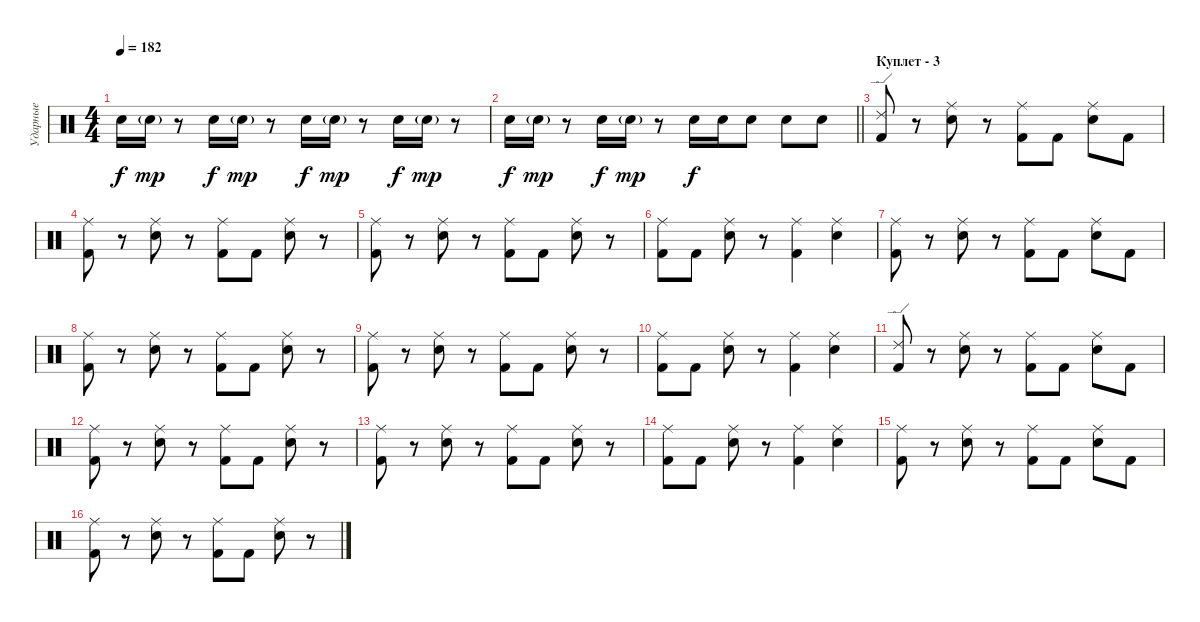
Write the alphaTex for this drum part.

\track ("Ударные" "Ударные") {instrument percussion}
\staff {score}
\articulation defaults
\ts (4 4)
\tempo 182
\clef neutral
\ks c "Snare (hit) 2".16{dy f volume 7} "Snare (hit) 2"{g}.16{dy mp volume 13}
r.8 "Snare (hit) 2".16{dy f} "Snare (hit) 2"{g}.16{dy mp} r.8 "Snare (hit) 2".16{dy f} "Snare (hit) 2"{g}.16{dy mp} r.8 "Snare (hit) 2".16{dy f} "Snare (hit) 2"{g}.16{dy mp} r.8 |
\barLineRight lightlight "Snare (hit) 2".16{dy f} "Snare (hit) 2"{g}.16{dy mp}
r.8 "Snare (hit) 2".16{dy f} "Snare (hit) 2"{g}.16{dy mp} r.8 "Snare (hit) 2".16{dy f} "Snare (hit) 2".16 "Snare (hit) 2".8 "Snare (hit) 2".8 "Snare (hit) 2".8 |
\section ("" "Куплет - 3")
("Ride (edge) 2" "Kick (hit) 2").8 r.8 ("Ride (middle)" "Snare (hit) 2").8 r.8 ("Ride (middle)" "Kick (hit) 2").8 "Kick (hit) 2".8 ("Ride (middle)" "Snare (hit) 2").8 "Kick (hit) 2".8 |
("Ride (middle)" "Kick (hit) 2").8 r.8 ("Ride (middle)" "Snare (hit) 2").8 r.8 ("Ride (middle)" "Kick (hit) 2").8 "Kick (hit) 2".8 ("Ride (middle)" "Snare (hit) 2").8 r.8 |
("Ride (middle)" "Kick (hit) 2").8 r.8 ("Ride (middle)" "Snare (hit) 2").8 r.8 ("Ride (middle)" "Kick (hit) 2").8 "Kick (hit) 2".8 ("Ride (middle)" "Snare (hit) 2").8 r.8 |
("Ride (middle)" "Kick (hit) 2").8 "Kick (hit) 2".8 ("Ride (middle)" "Snare (hit) 2").8 r.8 ("Ride (middle)" "Kick (hit) 2").4 ("Ride (middle)" "Snare (hit) 2").4 |
("Ride (middle)" "Kick (hit) 2").8 r.8 ("Ride (middle)" "Snare (hit) 2").8 r.8 ("Ride (middle)" "Kick (hit) 2").8 "Kick (hit) 2".8 ("Ride (middle)" "Snare (hit) 2").8 "Kick (hit) 2".8 |
("Ride (middle)" "Kick (hit) 2").8 r.8 ("Ride (middle)" "Snare (hit) 2").8 r.8 ("Ride (middle)" "Kick (hit) 2").8 "Kick (hit) 2".8 ("Ride (middle)" "Snare (hit) 2").8 r.8 |
("Ride (middle)" "Kick (hit) 2").8 r.8 ("Ride (middle)" "Snare (hit) 2").8 r.8 ("Ride (middle)" "Kick (hit) 2").8 "Kick (hit) 2".8 ("Ride (middle)" "Snare (hit) 2").8 r.8 |
("Ride (middle)" "Kick (hit) 2").8 "Kick (hit) 2".8 ("Ride (middle)" "Snare (hit) 2").8 r.8 ("Ride (middle)" "Kick (hit) 2").4 ("Ride (middle)" "Snare (hit) 2").4 |
("Ride (edge) 2" "Kick (hit) 2").8 r.8 ("Ride (middle)" "Snare (hit) 2").8 r.8 ("Ride (middle)" "Kick (hit) 2").8 "Kick (hit) 2".8 ("Ride (middle)" "Snare (hit) 2").8 "Kick (hit) 2".8 |
("Ride (middle)" "Kick (hit) 2").8 r.8 ("Ride (middle)" "Snare (hit) 2").8 r.8 ("Ride (middle)" "Kick (hit) 2").8 "Kick (hit) 2".8 ("Ride (middle)" "Snare (hit) 2").8 r.8 |
("Ride (middle)" "Kick (hit) 2").8 r.8 ("Ride (middle)" "Snare (hit) 2").8 r.8 ("Ride (middle)" "Kick (hit) 2").8 "Kick (hit) 2".8 ("Ride (middle)" "Snare (hit) 2").8 r.8 |
("Ride (middle)" "Kick (hit) 2").8 "Kick (hit) 2".8 ("Ride (middle)" "Snare (hit) 2").8 r.8 ("Ride (middle)" "Kick (hit) 2").4 ("Ride (middle)" "Snare (hit) 2").4 |
("Ride (middle)" "Kick (hit) 2").8 r.8 ("Ride (middle)" "Snare (hit) 2").8 r.8 ("Ride (middle)" "Kick (hit) 2").8 "Kick (hit) 2".8 ("Ride (middle)" "Snare (hit) 2").8 "Kick (hit) 2".8 |
("Ride (middle)" "Kick (hit) 2").8 r.8 ("Ride (middle)" "Snare (hit) 2").8 r.8 ("Ride (middle)" "Kick (hit) 2").8 "Kick (hit) 2".8 ("Ride (middle)" "Snare (hit) 2").8 r.8
